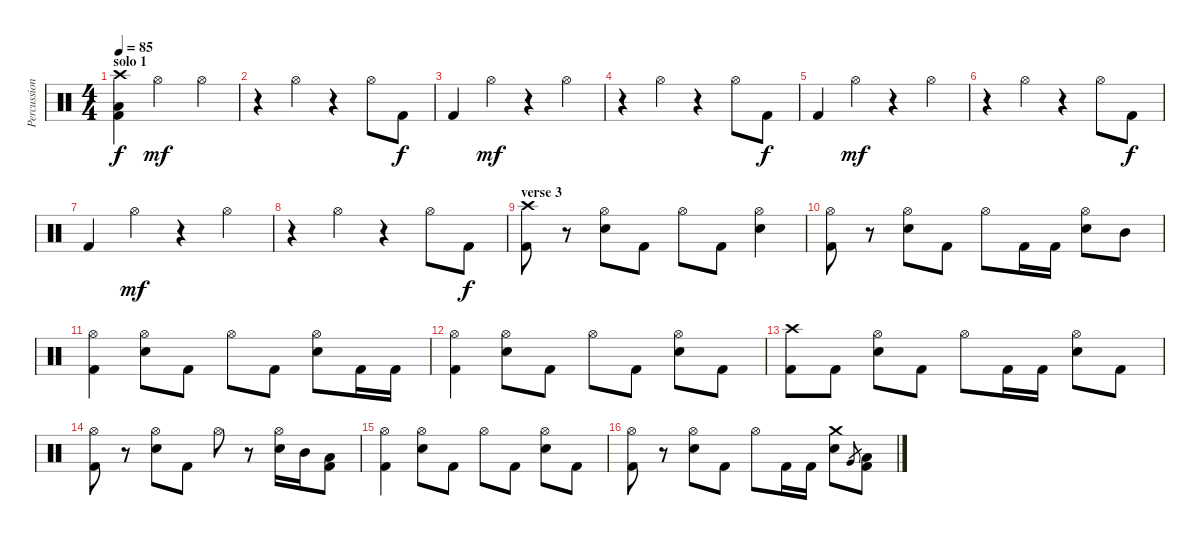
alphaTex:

\track ("Percussion" "Percussion") {instrument percussion}
\staff {score}
\articulation defaults
\ts (4 4)
\section ("" "solo 1")
\tempo 85
\clef neutral
\ks c
("Crash high (hit)" "Low Floor Tom (hit)" "Kick (hit) 2").4{dy f} "Hi-Hat (open)".2{dy mf} "Hi-Hat (open)".4 |
r.4 "Hi-Hat (open)".4 r.4 "Hi-Hat (open)".8 "Kick (hit) 2".8{dy f} |
"Kick (hit) 2".4 "Hi-Hat (open)".4{dy mf} r.4 "Hi-Hat (open)".4 |
r.4 "Hi-Hat (open)".4 r.4 "Hi-Hat (open)".8 "Kick (hit) 2".8{dy f} |
"Kick (hit) 2".4 "Hi-Hat (open)".4{dy mf} r.4 "Hi-Hat (open)".4 |
r.4 "Hi-Hat (open)".4 r.4 "Hi-Hat (open)".8 "Kick (hit) 2".8{dy f} |
"Kick (hit) 2".4 "Hi-Hat (open)".4{dy mf} r.4 "Hi-Hat (open)".4 |
r.4 "Hi-Hat (open)".4 r.4 "Hi-Hat (open)".8 "Kick (hit) 2".8{dy f} |
\section ("" "verse 3")
("Crash high (hit)" "Kick (hit) 2").8 r.8 ("Hi-Hat (open)" "Snare (hit) 2").8 "Kick (hit) 2".8 "Hi-Hat (open)".8 "Kick (hit) 2".8 ("Hi-Hat (open)" "Snare (hit) 2").4 |
("Hi-Hat (open)" "Kick (hit) 2").8 r.8 ("Hi-Hat (open)" "Snare (hit) 2").8 "Kick (hit) 2".8 "Hi-Hat (open)".8 "Kick (hit) 2".16 "Kick (hit) 2".16 ("Hi-Hat (open)" "Snare (hit) 2").8 "Mid Tom (hit)".8 |
("Hi-Hat (open)" "Kick (hit) 2").4 ("Hi-Hat (open)" "Snare (hit) 2").8 "Kick (hit) 2".8 "Hi-Hat (open)".8 "Kick (hit) 2".8 ("Hi-Hat (open)" "Snare (hit) 2").8 "Kick (hit) 2".16 "Kick (hit) 2".16 |
("Hi-Hat (open)" "Kick (hit) 2").4 ("Hi-Hat (open)" "Snare (hit) 2").8 "Kick (hit) 2".8 "Hi-Hat (open)".8 "Kick (hit) 2".8 ("Hi-Hat (open)" "Snare (hit) 2").8 "Kick (hit) 2".8 |
("Crash high (hit)" "Kick (hit) 2").8 "Kick (hit) 2".8 ("Hi-Hat (open)" "Snare (hit) 2").8 "Kick (hit) 2".8 "Hi-Hat (open)".8 "Kick (hit) 2".16 "Kick (hit) 2".16 ("Hi-Hat (open)" "Snare (hit) 2").8 "Kick (hit) 2".8 |
("Hi-Hat (open)" "Kick (hit) 2").8 r.8 ("Hi-Hat (open)" "Snare (hit) 2").8 "Kick (hit) 2".8 "Hi-Hat (open)".8 r.8 ("Hi-Hat (open)" "Snare (hit) 2").16 "Mid Tom (hit)".16 ("Low Tom (hit)" "Kick (hit) 2").8 |
("Hi-Hat (open)" "Kick (hit) 2").4 ("Hi-Hat (open)" "Snare (hit) 2").8 "Kick (hit) 2".8 "Hi-Hat (open)".8 "Kick (hit) 2".8 ("Hi-Hat (open)" "Snare (hit) 2").8 "Kick (hit) 2".8 |
("Hi-Hat (open)" "Kick (hit) 2").8 r.8 ("Hi-Hat (open)" "Snare (hit) 2").8 "Kick (hit) 2".8 "Hi-Hat (open)".8 "Kick (hit) 2".16 "Kick (hit) 2".16 ("Crash medium (hit)" "Snare (hit) 2").8 "Very Low Tom (hit)".8{gr} ("Low Tom (hit)" "Kick (hit) 2").8
